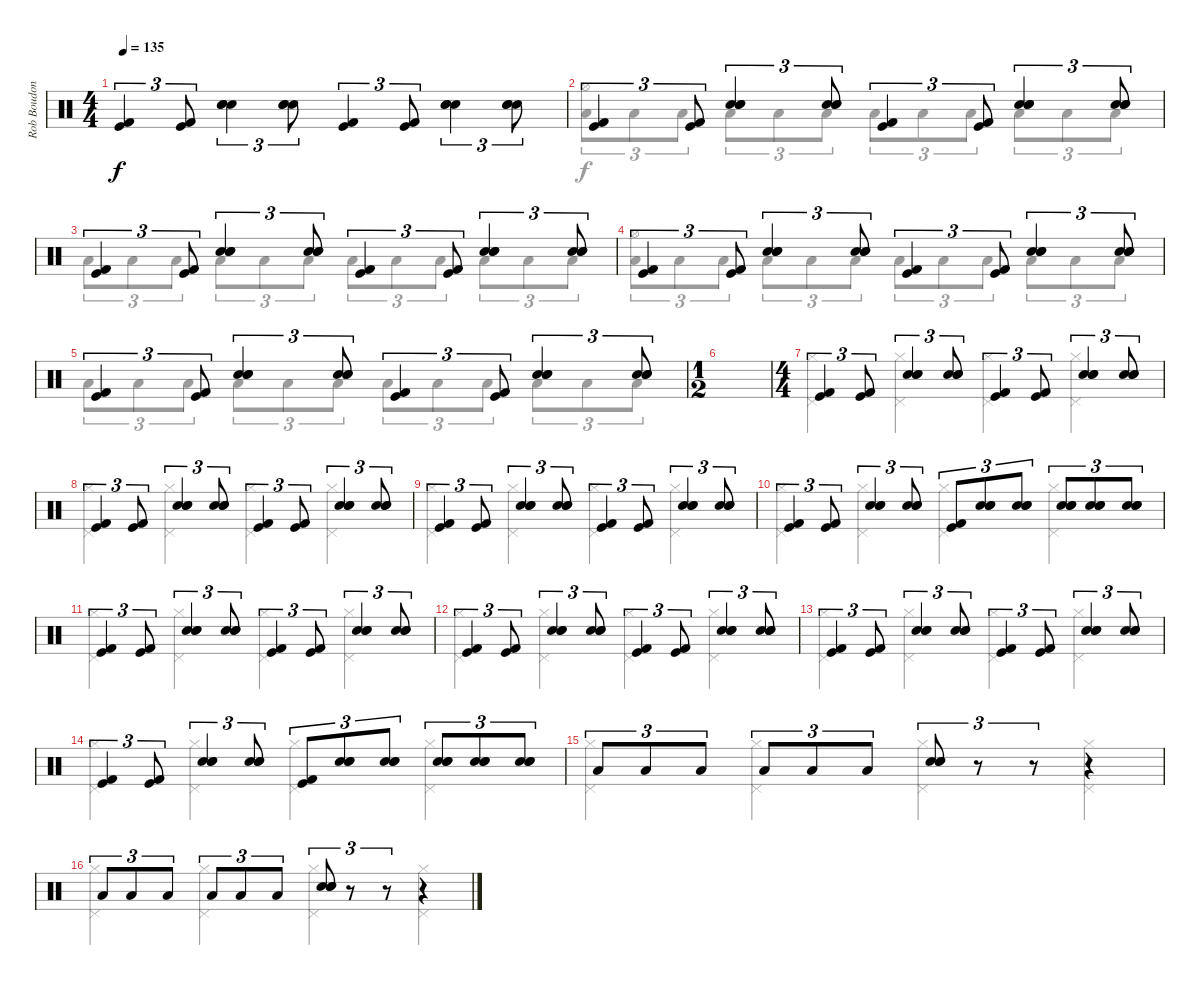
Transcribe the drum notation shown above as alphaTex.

\track ("Rob Boudon [Drums]" "Rob Boudon") {instrument percussion}
\staff {score}
\articulation defaults
\voice
\ts (4 4)
\tempo 135
\clef neutral
\ks c
("Kick (hit) 2" "Kick (hit)").4{tu (3 2) dy f} ("Kick (hit) 2" "Kick (hit)").8{tu (3 2)} ("Hand Clap (hit)" "Snare (hit) 2" "Electric Snare (hit)").4{tu (3 2)} ("Hand Clap (hit)" "Snare (hit) 2" "Electric Snare (hit)").8{tu (3 2)} ("Kick (hit) 2" "Kick (hit)").4{tu (3 2)} ("Kick (hit) 2" "Kick (hit)").8{tu (3 2)} ("Hand Clap (hit)" "Snare (hit) 2" "Electric Snare (hit)").4{tu (3 2)} ("Hand Clap (hit)" "Snare (hit) 2" "Electric Snare (hit)").8{tu (3 2)} |
("Kick (hit) 2" "Kick (hit)").4{tu (3 2)} ("Kick (hit) 2" "Kick (hit)").8{tu (3 2)} ("Hand Clap (hit)" "Snare (hit) 2" "Electric Snare (hit)").4{tu (3 2)} ("Hand Clap (hit)" "Snare (hit) 2" "Electric Snare (hit)").8{tu (3 2)} ("Kick (hit) 2" "Kick (hit)").4{tu (3 2)} ("Kick (hit) 2" "Kick (hit)").8{tu (3 2)} ("Hand Clap (hit)" "Snare (hit) 2" "Electric Snare (hit)").4{tu (3 2)} ("Hand Clap (hit)" "Snare (hit) 2" "Electric Snare (hit)").8{tu (3 2)} |
("Kick (hit) 2" "Kick (hit)").4{tu (3 2)} ("Kick (hit) 2" "Kick (hit)").8{tu (3 2)} ("Hand Clap (hit)" "Snare (hit) 2" "Electric Snare (hit)").4{tu (3 2)} ("Hand Clap (hit)" "Snare (hit) 2" "Electric Snare (hit)").8{tu (3 2)} ("Kick (hit) 2" "Kick (hit)").4{tu (3 2)} ("Kick (hit) 2" "Kick (hit)").8{tu (3 2)} ("Hand Clap (hit)" "Snare (hit) 2" "Electric Snare (hit)").4{tu (3 2)} ("Hand Clap (hit)" "Snare (hit) 2" "Electric Snare (hit)").8{tu (3 2)} |
("Kick (hit) 2" "Kick (hit)").4{tu (3 2)} ("Kick (hit) 2" "Kick (hit)").8{tu (3 2)} ("Hand Clap (hit)" "Snare (hit) 2" "Electric Snare (hit)").4{tu (3 2)} ("Hand Clap (hit)" "Snare (hit) 2" "Electric Snare (hit)").8{tu (3 2)} ("Kick (hit) 2" "Kick (hit)").4{tu (3 2)} ("Kick (hit) 2" "Kick (hit)").8{tu (3 2)} ("Hand Clap (hit)" "Snare (hit) 2" "Electric Snare (hit)").4{tu (3 2)} ("Hand Clap (hit)" "Snare (hit) 2" "Electric Snare (hit)").8{tu (3 2)} |
("Kick (hit) 2" "Kick (hit)").4{tu (3 2)} ("Kick (hit) 2" "Kick (hit)").8{tu (3 2)} ("Hand Clap (hit)" "Snare (hit) 2" "Electric Snare (hit)").4{tu (3 2)} ("Hand Clap (hit)" "Snare (hit) 2" "Electric Snare (hit)").8{tu (3 2)} ("Kick (hit) 2" "Kick (hit)").4{tu (3 2)} ("Kick (hit) 2" "Kick (hit)").8{tu (3 2)} ("Hand Clap (hit)" "Snare (hit) 2" "Electric Snare (hit)").4{tu (3 2)} ("Hand Clap (hit)" "Snare (hit) 2" "Electric Snare (hit)").8{tu (3 2)} |
\ts (1 2)
|
\ts (4 4)
("Kick (hit) 2" "Kick (hit)").4{tu (3 2)} ("Kick (hit) 2" "Kick (hit)").8{tu (3 2)} ("Hand Clap (hit)" "Snare (hit) 2" "Electric Snare (hit)").4{tu (3 2)} ("Hand Clap (hit)" "Snare (hit) 2" "Electric Snare (hit)").8{tu (3 2)} ("Kick (hit) 2" "Kick (hit)").4{tu (3 2)} ("Kick (hit) 2" "Kick (hit)").8{tu (3 2)} ("Hand Clap (hit)" "Snare (hit) 2" "Electric Snare (hit)").4{tu (3 2)} ("Hand Clap (hit)" "Snare (hit) 2" "Electric Snare (hit)").8{tu (3 2)} |
("Kick (hit) 2" "Kick (hit)").4{tu (3 2)} ("Kick (hit) 2" "Kick (hit)").8{tu (3 2)} ("Hand Clap (hit)" "Snare (hit) 2" "Electric Snare (hit)").4{tu (3 2)} ("Hand Clap (hit)" "Snare (hit) 2" "Electric Snare (hit)").8{tu (3 2)} ("Kick (hit) 2" "Kick (hit)").4{tu (3 2)} ("Kick (hit) 2" "Kick (hit)").8{tu (3 2)} ("Hand Clap (hit)" "Snare (hit) 2" "Electric Snare (hit)").4{tu (3 2)} ("Hand Clap (hit)" "Snare (hit) 2" "Electric Snare (hit)").8{tu (3 2)} |
("Kick (hit) 2" "Kick (hit)").4{tu (3 2)} ("Kick (hit) 2" "Kick (hit)").8{tu (3 2)} ("Hand Clap (hit)" "Snare (hit) 2" "Electric Snare (hit)").4{tu (3 2)} ("Hand Clap (hit)" "Snare (hit) 2" "Electric Snare (hit)").8{tu (3 2)} ("Kick (hit) 2" "Kick (hit)").4{tu (3 2)} ("Kick (hit) 2" "Kick (hit)").8{tu (3 2)} ("Hand Clap (hit)" "Snare (hit) 2" "Electric Snare (hit)").4{tu (3 2)} ("Hand Clap (hit)" "Snare (hit) 2" "Electric Snare (hit)").8{tu (3 2)} |
("Kick (hit) 2" "Kick (hit)").4{tu (3 2)} ("Kick (hit) 2" "Kick (hit)").8{tu (3 2)} ("Hand Clap (hit)" "Snare (hit) 2" "Electric Snare (hit)").4{tu (3 2)} ("Hand Clap (hit)" "Snare (hit) 2" "Electric Snare (hit)").8{tu (3 2)} ("Kick (hit) 2" "Kick (hit)").8{tu (3 2)} ("Hand Clap (hit)" "Snare (hit) 2" "Electric Snare (hit)").8{tu (3 2)} ("Hand Clap (hit)" "Snare (hit) 2" "Electric Snare (hit)").8{tu (3 2)} ("Hand Clap (hit)" "Snare (hit) 2" "Electric Snare (hit)").8{tu (3 2)} ("Hand Clap (hit)" "Snare (hit) 2" "Electric Snare (hit)").8{tu (3 2)} ("Hand Clap (hit)" "Snare (hit) 2" "Electric Snare (hit)").8{tu (3 2)} |
("Kick (hit) 2" "Kick (hit)").4{tu (3 2)} ("Kick (hit) 2" "Kick (hit)").8{tu (3 2)} ("Hand Clap (hit)" "Snare (hit) 2" "Electric Snare (hit)").4{tu (3 2)} ("Hand Clap (hit)" "Snare (hit) 2" "Electric Snare (hit)").8{tu (3 2)} ("Kick (hit) 2" "Kick (hit)").4{tu (3 2)} ("Kick (hit) 2" "Kick (hit)").8{tu (3 2)} ("Hand Clap (hit)" "Snare (hit) 2" "Electric Snare (hit)").4{tu (3 2)} ("Hand Clap (hit)" "Snare (hit) 2" "Electric Snare (hit)").8{tu (3 2)} |
("Kick (hit) 2" "Kick (hit)").4{tu (3 2)} ("Kick (hit) 2" "Kick (hit)").8{tu (3 2)} ("Hand Clap (hit)" "Snare (hit) 2" "Electric Snare (hit)").4{tu (3 2)} ("Hand Clap (hit)" "Snare (hit) 2" "Electric Snare (hit)").8{tu (3 2)} ("Kick (hit) 2" "Kick (hit)").4{tu (3 2)} ("Kick (hit) 2" "Kick (hit)").8{tu (3 2)} ("Hand Clap (hit)" "Snare (hit) 2" "Electric Snare (hit)").4{tu (3 2)} ("Hand Clap (hit)" "Snare (hit) 2" "Electric Snare (hit)").8{tu (3 2)} |
("Kick (hit) 2" "Kick (hit)").4{tu (3 2)} ("Kick (hit) 2" "Kick (hit)").8{tu (3 2)} ("Hand Clap (hit)" "Snare (hit) 2" "Electric Snare (hit)").4{tu (3 2)} ("Hand Clap (hit)" "Snare (hit) 2" "Electric Snare (hit)").8{tu (3 2)} ("Kick (hit) 2" "Kick (hit)").4{tu (3 2)} ("Kick (hit) 2" "Kick (hit)").8{tu (3 2)} ("Hand Clap (hit)" "Snare (hit) 2" "Electric Snare (hit)").4{tu (3 2)} ("Hand Clap (hit)" "Snare (hit) 2" "Electric Snare (hit)").8{tu (3 2)} |
("Kick (hit) 2" "Kick (hit)").4{tu (3 2)} ("Kick (hit) 2" "Kick (hit)").8{tu (3 2)} ("Hand Clap (hit)" "Snare (hit) 2" "Electric Snare (hit)").4{tu (3 2)} ("Hand Clap (hit)" "Snare (hit) 2" "Electric Snare (hit)").8{tu (3 2)} ("Kick (hit) 2" "Kick (hit)").8{tu (3 2)} ("Hand Clap (hit)" "Snare (hit) 2" "Electric Snare (hit)").8{tu (3 2)} ("Hand Clap (hit)" "Snare (hit) 2" "Electric Snare (hit)").8{tu (3 2)} ("Hand Clap (hit)" "Snare (hit) 2" "Electric Snare (hit)").8{tu (3 2)} ("Hand Clap (hit)" "Snare (hit) 2" "Electric Snare (hit)").8{tu (3 2)} ("Hand Clap (hit)" "Snare (hit) 2" "Electric Snare (hit)").8{tu (3 2)} |
"Low Tom (hit)".8{tu (3 2)} "Low Tom (hit)".8{tu (3 2)} "Low Tom (hit)".8{tu (3 2)} "Low Tom (hit)".8{tu (3 2)} "Low Tom (hit)".8{tu (3 2)} "Low Tom (hit)".8{tu (3 2)} ("Hand Clap (hit)" "Electric Snare (hit)" "Snare (hit) 2").8{tu (3 2)} r.8{tu (3 2)} r.8{tu (3 2)} r.4 |
"Low Tom (hit)".8{tu (3 2)} "Low Tom (hit)".8{tu (3 2)} "Low Tom (hit)".8{tu (3 2)} "Low Tom (hit)".8{tu (3 2)} "Low Tom (hit)".8{tu (3 2)} "Low Tom (hit)".8{tu (3 2)} ("Hand Clap (hit)" "Electric Snare (hit)" "Snare (hit) 2").8{tu (3 2)} r.8{tu (3 2)} r.8{tu (3 2)} r.4
\voice
\clef neutral
\ottava regular
\simile none
\ks c
|
("Hi-Hat (open)" "Low Tom (hit)").8{tu (3 2)} "Low Tom (hit)".8{tu (3 2)} "Low Tom (hit)".8{tu (3 2)} "Low Tom (hit)".8{tu (3 2)} "Low Tom (hit)".8{tu (3 2)} "Low Tom (hit)".8{tu (3 2)} "Low Tom (hit)".8{tu (3 2)} "Low Tom (hit)".8{tu (3 2)} "Low Tom (hit)".8{tu (3 2)} "Low Tom (hit)".8{tu (3 2)} "Low Tom (hit)".8{tu (3 2)} "Low Tom (hit)".8{tu (3 2)} |
"Low Tom (hit)".8{tu (3 2)} "Low Tom (hit)".8{tu (3 2)} "Low Tom (hit)".8{tu (3 2)} "Low Tom (hit)".8{tu (3 2)} "Low Tom (hit)".8{tu (3 2)} "Low Tom (hit)".8{tu (3 2)} "Low Tom (hit)".8{tu (3 2)} "Low Tom (hit)".8{tu (3 2)} "Low Tom (hit)".8{tu (3 2)} "Low Tom (hit)".8{tu (3 2)} "Low Tom (hit)".8{tu (3 2)} "Low Tom (hit)".8{tu (3 2)} |
("Hi-Hat (open)" "Low Tom (hit)").8{tu (3 2)} "Low Tom (hit)".8{tu (3 2)} "Low Tom (hit)".8{tu (3 2)} "Low Tom (hit)".8{tu (3 2)} "Low Tom (hit)".8{tu (3 2)} "Low Tom (hit)".8{tu (3 2)} "Low Tom (hit)".8{tu (3 2)} "Low Tom (hit)".8{tu (3 2)} "Low Tom (hit)".8{tu (3 2)} "Low Tom (hit)".8{tu (3 2)} "Low Tom (hit)".8{tu (3 2)} "Low Tom (hit)".8{tu (3 2)} |
"Low Tom (hit)".8{tu (3 2)} "Low Tom (hit)".8{tu (3 2)} "Low Tom (hit)".8{tu (3 2)} "Low Tom (hit)".8{tu (3 2)} "Low Tom (hit)".8{tu (3 2)} "Low Tom (hit)".8{tu (3 2)} "Low Tom (hit)".8{tu (3 2)} "Low Tom (hit)".8{tu (3 2)} "Low Tom (hit)".8{tu (3 2)} "Low Tom (hit)".8{tu (3 2)} "Low Tom (hit)".8{tu (3 2)} "Low Tom (hit)".8{tu (3 2)} |
|
("Hi-Hat (closed)" "Pedal Hi-Hat (hit)").4{dy f} ("Hi-Hat (closed)" "Pedal Hi-Hat (hit)").4 ("Hi-Hat (closed)" "Pedal Hi-Hat (hit)").4 ("Hi-Hat (closed)" "Pedal Hi-Hat (hit)").4 |
("Hi-Hat (closed)" "Pedal Hi-Hat (hit)").4 ("Hi-Hat (closed)" "Pedal Hi-Hat (hit)").4 ("Hi-Hat (closed)" "Pedal Hi-Hat (hit)").4 ("Hi-Hat (closed)" "Pedal Hi-Hat (hit)").4 |
("Hi-Hat (closed)" "Pedal Hi-Hat (hit)").4 ("Hi-Hat (closed)" "Pedal Hi-Hat (hit)").4 ("Hi-Hat (closed)" "Pedal Hi-Hat (hit)").4 ("Hi-Hat (closed)" "Pedal Hi-Hat (hit)").4 |
("Hi-Hat (closed)" "Pedal Hi-Hat (hit)").4 ("Hi-Hat (closed)" "Pedal Hi-Hat (hit)").4 ("Hi-Hat (closed)" "Pedal Hi-Hat (hit)").4 ("Hi-Hat (closed)" "Pedal Hi-Hat (hit)").4 |
("Hi-Hat (closed)" "Pedal Hi-Hat (hit)").4 ("Hi-Hat (closed)" "Pedal Hi-Hat (hit)").4 ("Hi-Hat (closed)" "Pedal Hi-Hat (hit)").4 ("Hi-Hat (closed)" "Pedal Hi-Hat (hit)").4 |
("Hi-Hat (closed)" "Pedal Hi-Hat (hit)").4 ("Hi-Hat (closed)" "Pedal Hi-Hat (hit)").4 ("Hi-Hat (closed)" "Pedal Hi-Hat (hit)").4 ("Hi-Hat (closed)" "Pedal Hi-Hat (hit)").4 |
("Hi-Hat (closed)" "Pedal Hi-Hat (hit)").4 ("Hi-Hat (closed)" "Pedal Hi-Hat (hit)").4 ("Hi-Hat (closed)" "Pedal Hi-Hat (hit)").4 ("Hi-Hat (closed)" "Pedal Hi-Hat (hit)").4 |
("Hi-Hat (closed)" "Pedal Hi-Hat (hit)").4 ("Hi-Hat (closed)" "Pedal Hi-Hat (hit)").4 ("Hi-Hat (closed)" "Pedal Hi-Hat (hit)").4 ("Hi-Hat (closed)" "Pedal Hi-Hat (hit)").4 |
("Hi-Hat (closed)" "Pedal Hi-Hat (hit)").4 ("Hi-Hat (closed)" "Pedal Hi-Hat (hit)").4 ("Hi-Hat (closed)" "Pedal Hi-Hat (hit)").4 ("Hi-Hat (closed)" "Pedal Hi-Hat (hit)").4 |
("Hi-Hat (closed)" "Pedal Hi-Hat (hit)").4 ("Hi-Hat (closed)" "Pedal Hi-Hat (hit)").4 ("Hi-Hat (closed)" "Pedal Hi-Hat (hit)").4 ("Hi-Hat (closed)" "Pedal Hi-Hat (hit)").4
